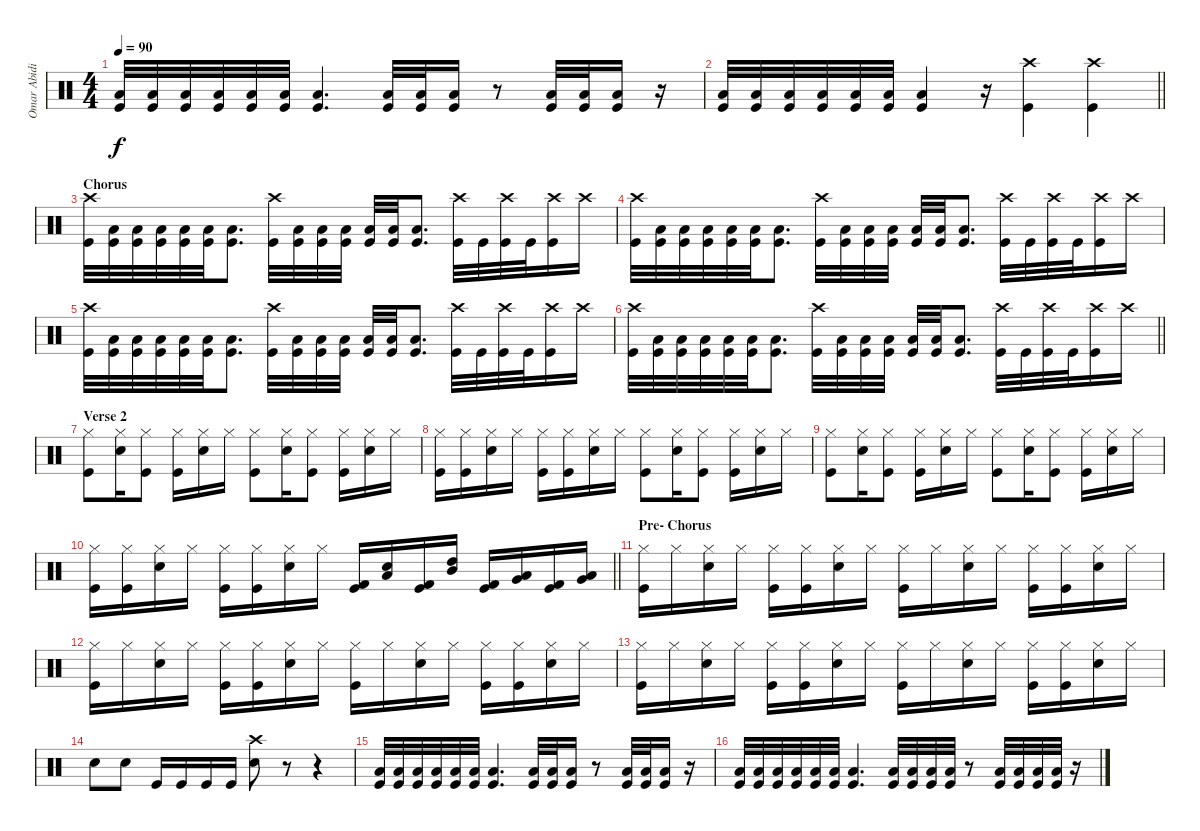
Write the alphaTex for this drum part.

\track ("Omar Abidi" "Omar Abidi") {instrument percussion}
\staff {score}
\articulation defaults
\ts (4 4)
\tempo 90
\clef neutral
\ks c
("Low Floor Tom (hit)" "Kick (hit)").32{dy f} ("Low Floor Tom (hit)" "Kick (hit)").32 ("Low Floor Tom (hit)" "Kick (hit)").32 ("Low Floor Tom (hit)" "Kick (hit)").32 ("Low Floor Tom (hit)" "Kick (hit)").32 ("Low Floor Tom (hit)" "Kick (hit)").32 ("Low Floor Tom (hit)" "Kick (hit)").4{d} ("Low Floor Tom (hit)" "Kick (hit)").32 ("Low Floor Tom (hit)" "Kick (hit)").32 ("Low Floor Tom (hit)" "Kick (hit)").16 r.8 ("Low Floor Tom (hit)" "Kick (hit)").32 ("Low Floor Tom (hit)" "Kick (hit)").32 ("Low Floor Tom (hit)" "Kick (hit)").16 r.16 |
\barLineRight lightlight
("Low Floor Tom (hit)" "Kick (hit)").32 ("Low Floor Tom (hit)" "Kick (hit)").32 ("Low Floor Tom (hit)" "Kick (hit)").32 ("Low Floor Tom (hit)" "Kick (hit)").32 ("Low Floor Tom (hit)" "Kick (hit)").32 ("Low Floor Tom (hit)" "Kick (hit)").32 ("Low Floor Tom (hit)" "Kick (hit)").4 r.16 ("Crash high (hit)" "Kick (hit)").4 ("Crash high (hit)" "Kick (hit)").4 |
\section ("" "Chorus")
("Crash high (hit)" "Kick (hit)").32 ("Low Floor Tom (hit)" "Kick (hit)").32 ("Low Floor Tom (hit)" "Kick (hit)").32 ("Low Floor Tom (hit)" "Kick (hit)").32 ("Low Floor Tom (hit)" "Kick (hit)").32 ("Low Floor Tom (hit)" "Kick (hit)").32 ("Low Floor Tom (hit)" "Kick (hit)").8{d} ("Crash high (hit)" "Kick (hit)").32 ("Low Floor Tom (hit)" "Kick (hit)").32 ("Low Floor Tom (hit)" "Kick (hit)").32 ("Low Floor Tom (hit)" "Kick (hit)").32 ("Low Floor Tom (hit)" "Kick (hit)").32 ("Low Floor Tom (hit)" "Kick (hit)").32 ("Low Floor Tom (hit)" "Kick (hit)").8{d} ("Crash high (hit)" "Kick (hit)").32 "Kick (hit)".32 ("Crash high (hit)" "Kick (hit)").32 "Kick (hit)".32 ("Crash high (hit)" "Kick (hit)").16 "Crash high (hit)".16 |
("Crash high (hit)" "Kick (hit)").32 ("Low Floor Tom (hit)" "Kick (hit)").32 ("Low Floor Tom (hit)" "Kick (hit)").32 ("Low Floor Tom (hit)" "Kick (hit)").32 ("Low Floor Tom (hit)" "Kick (hit)").32 ("Low Floor Tom (hit)" "Kick (hit)").32 ("Low Floor Tom (hit)" "Kick (hit)").8{d} ("Crash high (hit)" "Kick (hit)").32 ("Low Floor Tom (hit)" "Kick (hit)").32 ("Low Floor Tom (hit)" "Kick (hit)").32 ("Low Floor Tom (hit)" "Kick (hit)").32 ("Low Floor Tom (hit)" "Kick (hit)").32 ("Low Floor Tom (hit)" "Kick (hit)").32 ("Low Floor Tom (hit)" "Kick (hit)").8{d} ("Crash high (hit)" "Kick (hit)").32 "Kick (hit)".32 ("Crash high (hit)" "Kick (hit)").32 "Kick (hit)".32 ("Crash high (hit)" "Kick (hit)").16 "Crash high (hit)".16 |
("Crash high (hit)" "Kick (hit)").32 ("Low Floor Tom (hit)" "Kick (hit)").32 ("Low Floor Tom (hit)" "Kick (hit)").32 ("Low Floor Tom (hit)" "Kick (hit)").32 ("Low Floor Tom (hit)" "Kick (hit)").32 ("Low Floor Tom (hit)" "Kick (hit)").32 ("Low Floor Tom (hit)" "Kick (hit)").8{d} ("Crash high (hit)" "Kick (hit)").32 ("Low Floor Tom (hit)" "Kick (hit)").32 ("Low Floor Tom (hit)" "Kick (hit)").32 ("Low Floor Tom (hit)" "Kick (hit)").32 ("Low Floor Tom (hit)" "Kick (hit)").32 ("Low Floor Tom (hit)" "Kick (hit)").32 ("Low Floor Tom (hit)" "Kick (hit)").8{d} ("Crash high (hit)" "Kick (hit)").32 "Kick (hit)".32 ("Crash high (hit)" "Kick (hit)").32 "Kick (hit)".32 ("Crash high (hit)" "Kick (hit)").16 "Crash high (hit)".16 |
\barLineRight lightlight
("Crash high (hit)" "Kick (hit)").32 ("Low Floor Tom (hit)" "Kick (hit)").32 ("Low Floor Tom (hit)" "Kick (hit)").32 ("Low Floor Tom (hit)" "Kick (hit)").32 ("Low Floor Tom (hit)" "Kick (hit)").32 ("Low Floor Tom (hit)" "Kick (hit)").32 ("Low Floor Tom (hit)" "Kick (hit)").8{d} ("Crash high (hit)" "Kick (hit)").32 ("Low Floor Tom (hit)" "Kick (hit)").32 ("Low Floor Tom (hit)" "Kick (hit)").32 ("Low Floor Tom (hit)" "Kick (hit)").32 ("Low Floor Tom (hit)" "Kick (hit)").32 ("Low Floor Tom (hit)" "Kick (hit)").32 ("Low Floor Tom (hit)" "Kick (hit)").8{d} ("Crash high (hit)" "Kick (hit)").32 "Kick (hit)".32 ("Crash high (hit)" "Kick (hit)").32 "Kick (hit)".32 ("Crash high (hit)" "Kick (hit)").16 "Crash high (hit)".16 |
\section ("" "Verse 2")
("Hi-Hat (closed)" "Kick (hit)").8 ("Hi-Hat (closed)" "Snare (hit) 2").16 ("Hi-Hat (closed)" "Kick (hit)").8 ("Hi-Hat (closed)" "Kick (hit)").16 ("Hi-Hat (closed)" "Snare (hit) 2").16 "Hi-Hat (closed)".16 ("Hi-Hat (closed)" "Kick (hit)").8 ("Hi-Hat (closed)" "Snare (hit) 2").16 ("Hi-Hat (closed)" "Kick (hit)").8 ("Hi-Hat (closed)" "Kick (hit)").16 ("Hi-Hat (closed)" "Snare (hit) 2").16 "Hi-Hat (closed)".16 |
("Hi-Hat (closed)" "Kick (hit)").16 ("Hi-Hat (closed)" "Kick (hit)").16 ("Hi-Hat (closed)" "Snare (hit) 2").16 "Hi-Hat (closed)".16 ("Hi-Hat (closed)" "Kick (hit)").16 ("Hi-Hat (closed)" "Kick (hit)").16 ("Hi-Hat (closed)" "Snare (hit) 2").16 "Hi-Hat (closed)".16 ("Hi-Hat (closed)" "Kick (hit)").8 ("Hi-Hat (closed)" "Snare (hit) 2").16 ("Hi-Hat (closed)" "Kick (hit)").8 ("Hi-Hat (closed)" "Kick (hit)").16 ("Hi-Hat (closed)" "Snare (hit) 2").16 "Hi-Hat (closed)".16 |
("Hi-Hat (closed)" "Kick (hit)").8 ("Hi-Hat (closed)" "Snare (hit) 2").16 ("Hi-Hat (closed)" "Kick (hit)").8 ("Hi-Hat (closed)" "Kick (hit)").16 ("Hi-Hat (closed)" "Snare (hit) 2").16 "Hi-Hat (closed)".16 ("Hi-Hat (closed)" "Kick (hit)").8 ("Hi-Hat (closed)" "Snare (hit) 2").16 ("Hi-Hat (closed)" "Kick (hit)").8 ("Hi-Hat (closed)" "Kick (hit)").16 ("Hi-Hat (closed)" "Snare (hit) 2").16 "Hi-Hat (closed)".16 |
\barLineRight lightlight
("Hi-Hat (closed)" "Kick (hit)").16 ("Hi-Hat (closed)" "Kick (hit)").16 ("Hi-Hat (closed)" "Snare (hit) 2").16 "Hi-Hat (closed)".16 ("Hi-Hat (closed)" "Kick (hit)").16 ("Hi-Hat (closed)" "Kick (hit)").16 ("Hi-Hat (closed)" "Snare (hit) 2").16 "Hi-Hat (closed)".16 ("Kick (hit) 2" "Kick (hit)").16 ("Low Floor Tom (hit)" "Snare (hit) 2").16 ("Kick (hit) 2" "Kick (hit)").16 ("Mid Tom (hit)" "High Tom (hit)").16 ("Kick (hit) 2" "Kick (hit)").16 ("Low Tom (hit)" "Very Low Tom (hit)").16 ("Kick (hit) 2" "Kick (hit)").16 ("Very Low Tom (hit)" "Low Floor Tom (hit)").16 |
\section ("" "Pre- Chorus")
("Hi-Hat (closed)" "Kick (hit)").16 "Hi-Hat (closed)".16 ("Hi-Hat (closed)" "Snare (hit) 2").16 "Hi-Hat (closed)".16 ("Hi-Hat (closed)" "Kick (hit)").16 ("Hi-Hat (closed)" "Kick (hit)").16 ("Hi-Hat (closed)" "Snare (hit) 2").16 "Hi-Hat (closed)".16 ("Hi-Hat (closed)" "Kick (hit)").16 "Hi-Hat (closed)".16 ("Hi-Hat (closed)" "Snare (hit) 2").16 "Hi-Hat (closed)".16 ("Hi-Hat (closed)" "Kick (hit)").16 ("Hi-Hat (closed)" "Kick (hit)").16 ("Hi-Hat (closed)" "Snare (hit) 2").16 "Hi-Hat (closed)".16 |
("Hi-Hat (closed)" "Kick (hit)").16 "Hi-Hat (closed)".16 ("Hi-Hat (closed)" "Snare (hit) 2").16 "Hi-Hat (closed)".16 ("Hi-Hat (closed)" "Kick (hit)").16 ("Hi-Hat (closed)" "Kick (hit)").16 ("Hi-Hat (closed)" "Snare (hit) 2").16 "Hi-Hat (closed)".16 ("Hi-Hat (closed)" "Kick (hit)").16 "Hi-Hat (closed)".16 ("Hi-Hat (closed)" "Snare (hit) 2").16 "Hi-Hat (closed)".16 ("Hi-Hat (closed)" "Kick (hit)").16 ("Hi-Hat (closed)" "Kick (hit)").16 ("Hi-Hat (closed)" "Snare (hit) 2").16 "Hi-Hat (closed)".16 |
("Hi-Hat (closed)" "Kick (hit)").16 "Hi-Hat (closed)".16 ("Hi-Hat (closed)" "Snare (hit) 2").16 "Hi-Hat (closed)".16 ("Hi-Hat (closed)" "Kick (hit)").16 ("Hi-Hat (closed)" "Kick (hit)").16 ("Hi-Hat (closed)" "Snare (hit) 2").16 "Hi-Hat (closed)".16 ("Hi-Hat (closed)" "Kick (hit)").16 "Hi-Hat (closed)".16 ("Hi-Hat (closed)" "Snare (hit) 2").16 "Hi-Hat (closed)".16 ("Hi-Hat (closed)" "Kick (hit)").16 ("Hi-Hat (closed)" "Kick (hit)").16 ("Hi-Hat (closed)" "Snare (hit) 2").16 "Hi-Hat (closed)".16 |
"Snare (hit) 2".8 "Snare (hit) 2".8 "Kick (hit)".16 "Kick (hit)".16 "Kick (hit)".16 "Kick (hit)".16 ("Crash high (hit)" "Snare (hit) 2").8 r.8 r.4 |
("Low Floor Tom (hit)" "Kick (hit)").32 ("Low Floor Tom (hit)" "Kick (hit)").32 ("Low Floor Tom (hit)" "Kick (hit)").32 ("Low Floor Tom (hit)" "Kick (hit)").32 ("Low Floor Tom (hit)" "Kick (hit)").32 ("Low Floor Tom (hit)" "Kick (hit)").32 ("Low Floor Tom (hit)" "Kick (hit)").4{d} ("Low Floor Tom (hit)" "Kick (hit)").32 ("Low Floor Tom (hit)" "Kick (hit)").32 ("Low Floor Tom (hit)" "Kick (hit)").16 r.8 ("Low Floor Tom (hit)" "Kick (hit)").32 ("Low Floor Tom (hit)" "Kick (hit)").32 ("Low Floor Tom (hit)" "Kick (hit)").16 r.16 |
("Low Floor Tom (hit)" "Kick (hit)").32 ("Low Floor Tom (hit)" "Kick (hit)").32 ("Low Floor Tom (hit)" "Kick (hit)").32 ("Low Floor Tom (hit)" "Kick (hit)").32 ("Low Floor Tom (hit)" "Kick (hit)").32 ("Low Floor Tom (hit)" "Kick (hit)").32 ("Low Floor Tom (hit)" "Kick (hit)").4{d} ("Low Floor Tom (hit)" "Kick (hit)").32 ("Low Floor Tom (hit)" "Kick (hit)").32 ("Low Floor Tom (hit)" "Kick (hit)").32 ("Low Floor Tom (hit)" "Kick (hit)").32 r.8 ("Low Floor Tom (hit)" "Kick (hit)").32 ("Low Floor Tom (hit)" "Kick (hit)").32 ("Low Floor Tom (hit)" "Kick (hit)").32 ("Low Floor Tom (hit)" "Kick (hit)").32 r.16
